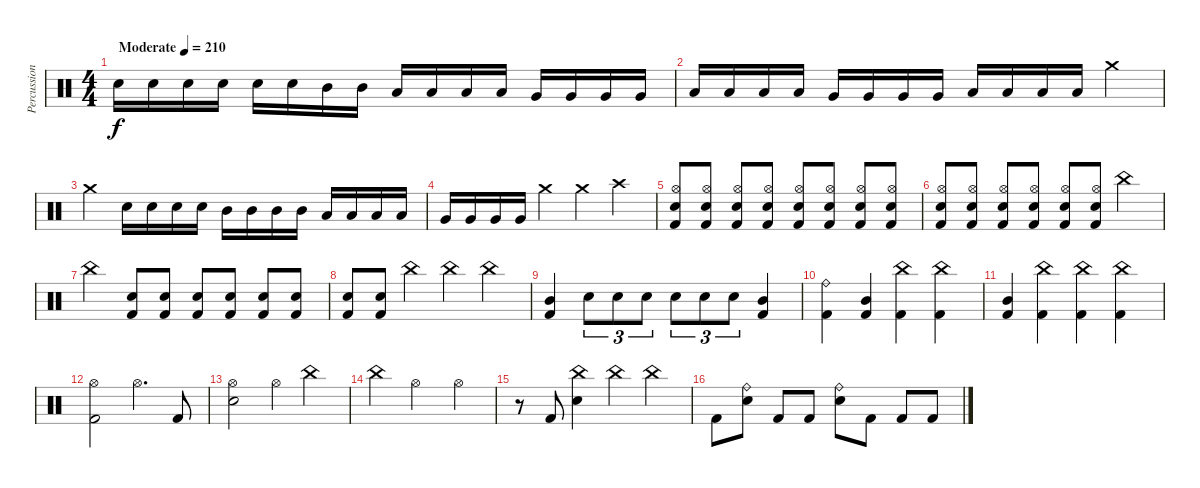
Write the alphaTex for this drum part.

\track ("Percussion" "Percussion") {instrument percussion}
\staff {score}
\articulation defaults
\ts (4 4)
\tempo (210 "Moderate")
\clef neutral
\ks c "Electric Snare (hit)".16{dy f} "Electric Snare (hit)".16 "Electric Snare (hit)".16 "Electric Snare (hit)".16 "Electric Snare (hit)".16 "Electric Snare (hit)".16 "Mid Tom (hit)".16 "Mid Tom (hit)".16 "Low Tom (hit)".16 "Low Tom (hit)".16 "Low Tom (hit)".16 "Low Tom (hit)".16 "Very Low Tom (hit)".16 "Very Low Tom (hit)".16 "Very Low Tom (hit)".16 "Very Low Tom (hit)".16
|
"Low Tom (hit)".16 "Low Tom (hit)".16 "Low Tom (hit)".16 "Low Tom (hit)".16 "Very Low Tom (hit)".16 "Very Low Tom (hit)".16 "Very Low Tom (hit)".16 "Very Low Tom (hit)".16 "Low Floor Tom (hit)".16 "Low Floor Tom (hit)".16 "Low Floor Tom (hit)".16 "Low Floor Tom (hit)".16 "Crash medium (hit)".4 |
"Crash medium (hit)".4 "Electric Snare (hit)".16 "Electric Snare (hit)".16 "Electric Snare (hit)".16 "Electric Snare (hit)".16 "Mid Tom (hit)".16 "Mid Tom (hit)".16 "Mid Tom (hit)".16 "Mid Tom (hit)".16 "Low Tom (hit)".16 "Low Tom (hit)".16 "Low Tom (hit)".16 "Low Tom (hit)".16 |
"Very Low Tom (hit)".16 "Very Low Tom (hit)".16 "Very Low Tom (hit)".16 "Very Low Tom (hit)".16 "Crash medium (hit)".4 "Crash medium (hit)".4 "Crash high (hit)".4 |
("Hi-Hat (open)" "Electric Snare (hit)" "Kick (hit) 2").8 ("Hi-Hat (open)" "Electric Snare (hit)" "Kick (hit) 2").8 ("Hi-Hat (open)" "Electric Snare (hit)" "Kick (hit) 2").8 ("Hi-Hat (open)" "Electric Snare (hit)" "Kick (hit) 2").8 ("Hi-Hat (open)" "Electric Snare (hit)" "Kick (hit) 2").8 ("Hi-Hat (open)" "Electric Snare (hit)" "Kick (hit) 2").8 ("Hi-Hat (open)" "Electric Snare (hit)" "Kick (hit) 2").8 ("Hi-Hat (open)" "Electric Snare (hit)" "Kick (hit) 2").8 |
("Hi-Hat (open)" "Electric Snare (hit)" "Kick (hit) 2").8 ("Hi-Hat (open)" "Electric Snare (hit)" "Kick (hit) 2").8 ("Hi-Hat (open)" "Electric Snare (hit)" "Kick (hit) 2").8 ("Hi-Hat (open)" "Electric Snare (hit)" "Kick (hit) 2").8 ("Hi-Hat (open)" "Electric Snare (hit)" "Kick (hit) 2").8 ("Hi-Hat (open)" "Electric Snare (hit)" "Kick (hit) 2").8 "China (hit)".4 |
"China (hit)".4 ("Electric Snare (hit)" "Kick (hit) 2").8 ("Electric Snare (hit)" "Kick (hit) 2").8 ("Electric Snare (hit)" "Kick (hit) 2").8 ("Electric Snare (hit)" "Kick (hit) 2").8 ("Electric Snare (hit)" "Kick (hit) 2").8 ("Electric Snare (hit)" "Kick (hit) 2").8 |
("Electric Snare (hit)" "Kick (hit) 2").8 ("Electric Snare (hit)" "Kick (hit) 2").8 "China (hit)".4 "China (hit)".4 "China (hit)".4 |
("Mid Tom (hit)" "Kick (hit) 2").4 "Electric Snare (hit)".8{tu (3 2)} "Electric Snare (hit)".8{tu (3 2)} "Electric Snare (hit)".8{tu (3 2)} "Electric Snare (hit)".8{tu (3 2)} "Electric Snare (hit)".8{tu (3 2)} "Electric Snare (hit)".8{tu (3 2)} ("Mid Tom (hit)" "Kick (hit) 2").4 |
("Ride (bell)" "Kick (hit) 2").4 ("Mid Tom (hit)" "Kick (hit) 2").4 ("China (hit)" "Kick (hit) 2").4 ("China (hit)" "Kick (hit) 2").4 |
("Mid Tom (hit)" "Kick (hit) 2").4 ("China (hit)" "Kick (hit) 2").4 ("China (hit)" "Kick (hit) 2").4 ("China (hit)" "Kick (hit) 2").4 |
("Hi-Hat (open)" "Kick (hit) 2").2 "Hi-Hat (open)".4{d} "Kick (hit) 2".8 |
("Hi-Hat (open)" "Electric Snare (hit)").2 "Hi-Hat (open)".4 "China (hit)".4 |
"China (hit)".4 "Hi-Hat (open)".2 "Hi-Hat (open)".4 |
r.8 "Kick (hit) 2".8 ("China (hit)" "Electric Snare (hit)").4 "China (hit)".4 "China (hit)".4 |
"Kick (hit) 2".8 ("Ride (bell)" "Electric Snare (hit)").8 "Kick (hit) 2".8 "Kick (hit) 2".8 ("Ride (bell)" "Electric Snare (hit)").8 "Kick (hit) 2".8 "Kick (hit) 2".8 "Kick (hit) 2".8
